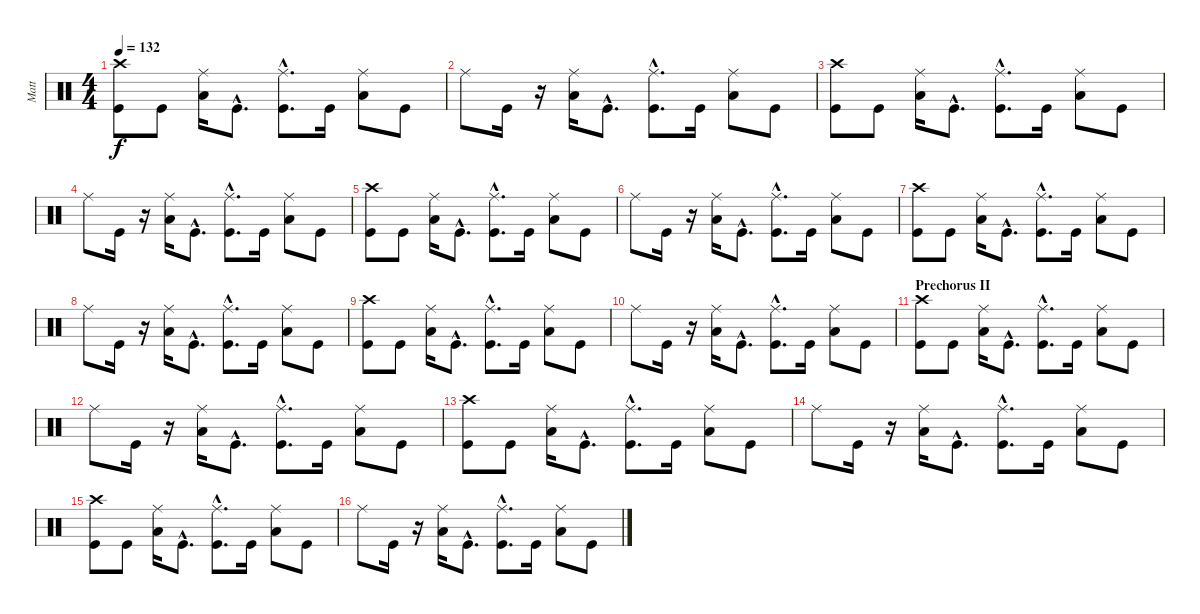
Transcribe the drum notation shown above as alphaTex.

\track ("Matt" "Matt") {instrument percussion}
\staff {score}
\articulation defaults
\ts (4 4)
\tempo 132
\clef neutral
\ks c
("Crash high (hit)" "Kick (hit)").8{dy f} "Kick (hit)".8 ("Ride (middle)" "Low Tom (hit)").16 "Kick (hit)"{hac}.8{d} ("Kick (hit)"{hac} "Ride (middle)").8{d} "Kick (hit)".16 ("Ride (middle)" "Low Tom (hit)").8 "Kick (hit)".8 |
"Ride (middle)".8 "Kick (hit)".16 r.16 ("Ride (middle)" "Low Tom (hit)").16 "Kick (hit)"{hac}.8{d} ("Ride (middle)" "Kick (hit)"{hac}).8{d} "Kick (hit)".16 ("Low Tom (hit)" "Ride (middle)").8 "Kick (hit)".8 |
("Crash high (hit)" "Kick (hit)").8 "Kick (hit)".8 ("Low Tom (hit)" "Ride (middle)").16 "Kick (hit)"{hac}.8{d} ("Ride (middle)" "Kick (hit)"{hac}).8{d} "Kick (hit)".16 ("Low Tom (hit)" "Ride (middle)").8 "Kick (hit)".8 |
"Ride (middle)".8 "Kick (hit)".16 r.16 ("Ride (middle)" "Low Tom (hit)").16 "Kick (hit)"{hac}.8{d} ("Kick (hit)"{hac} "Ride (middle)").8{d} "Kick (hit)".16 ("Ride (middle)" "Low Tom (hit)").8 "Kick (hit)".8 |
("Kick (hit)" "Crash high (hit)").8 "Kick (hit)".8 ("Ride (middle)" "Low Tom (hit)").16 "Kick (hit)"{hac}.8{d} ("Kick (hit)"{hac} "Ride (middle)").8{d} "Kick (hit)".16 ("Low Tom (hit)" "Ride (middle)").8 "Kick (hit)".8 |
"Ride (middle)".8 "Kick (hit)".16 r.16 ("Ride (middle)" "Low Tom (hit)").16 "Kick (hit)"{hac}.8{d} ("Kick (hit)"{hac} "Ride (middle)").8{d} "Kick (hit)".16 ("Ride (middle)" "Low Tom (hit)").8 "Kick (hit)".8 |
("Crash high (hit)" "Kick (hit)").8 "Kick (hit)".8 ("Ride (middle)" "Low Tom (hit)").16 "Kick (hit)"{hac}.8{d} ("Ride (middle)" "Kick (hit)"{hac}).8{d} "Kick (hit)".16 ("Ride (middle)" "Low Tom (hit)").8 "Kick (hit)".8 |
"Ride (middle)".8 "Kick (hit)".16 r.16 ("Ride (middle)" "Low Tom (hit)").16 "Kick (hit)"{hac}.8{d} ("Kick (hit)"{hac} "Ride (middle)").8{d} "Kick (hit)".16 ("Ride (middle)" "Low Tom (hit)").8 "Kick (hit)".8 |
("Crash high (hit)" "Kick (hit)").8 "Kick (hit)".8 ("Ride (middle)" "Low Tom (hit)").16 "Kick (hit)"{hac}.8{d} ("Kick (hit)"{hac} "Ride (middle)").8{d} "Kick (hit)".16 ("Ride (middle)" "Low Tom (hit)").8 "Kick (hit)".8 |
"Ride (middle)".8 "Kick (hit)".16 r.16 ("Ride (middle)" "Low Tom (hit)").16 "Kick (hit)"{hac}.8{d} ("Kick (hit)"{hac} "Ride (middle)").8{d} "Kick (hit)".16 ("Low Tom (hit)" "Ride (middle)").8 "Kick (hit)".8 |
\section ("" "Prechorus II")
("Kick (hit)" "Crash high (hit)").8 "Kick (hit)".8 ("Ride (middle)" "Low Tom (hit)").16 "Kick (hit)"{hac}.8{d} ("Ride (middle)" "Kick (hit)"{hac}).8{d} "Kick (hit)".16 ("Low Tom (hit)" "Ride (middle)").8 "Kick (hit)".8 |
"Ride (middle)".8 "Kick (hit)".16 r.16 ("Low Tom (hit)" "Ride (middle)").16 "Kick (hit)"{hac}.8{d} ("Ride (middle)" "Kick (hit)"{hac}).8{d} "Kick (hit)".16 ("Ride (middle)" "Low Tom (hit)").8 "Kick (hit)".8 |
("Kick (hit)" "Crash high (hit)").8 "Kick (hit)".8 ("Ride (middle)" "Low Tom (hit)").16 "Kick (hit)"{hac}.8{d} ("Ride (middle)" "Kick (hit)"{hac}).8{d} "Kick (hit)".16 ("Low Tom (hit)" "Ride (middle)").8 "Kick (hit)".8 |
"Ride (middle)".8 "Kick (hit)".16 r.16 ("Low Tom (hit)" "Ride (middle)").16 "Kick (hit)"{hac}.8{d} ("Ride (middle)" "Kick (hit)"{hac}).8{d} "Kick (hit)".16 ("Ride (middle)" "Low Tom (hit)").8 "Kick (hit)".8 |
("Crash high (hit)" "Kick (hit)").8 "Kick (hit)".8 ("Low Tom (hit)" "Ride (middle)").16 "Kick (hit)"{hac}.8{d} ("Ride (middle)" "Kick (hit)"{hac}).8{d} "Kick (hit)".16 ("Low Tom (hit)" "Ride (middle)").8 "Kick (hit)".8 |
"Ride (middle)".8 "Kick (hit)".16 r.16 ("Low Tom (hit)" "Ride (middle)").16 "Kick (hit)"{hac}.8{d} ("Kick (hit)"{hac} "Ride (middle)").8{d} "Kick (hit)".16 ("Low Tom (hit)" "Ride (middle)").8 "Kick (hit)".8
